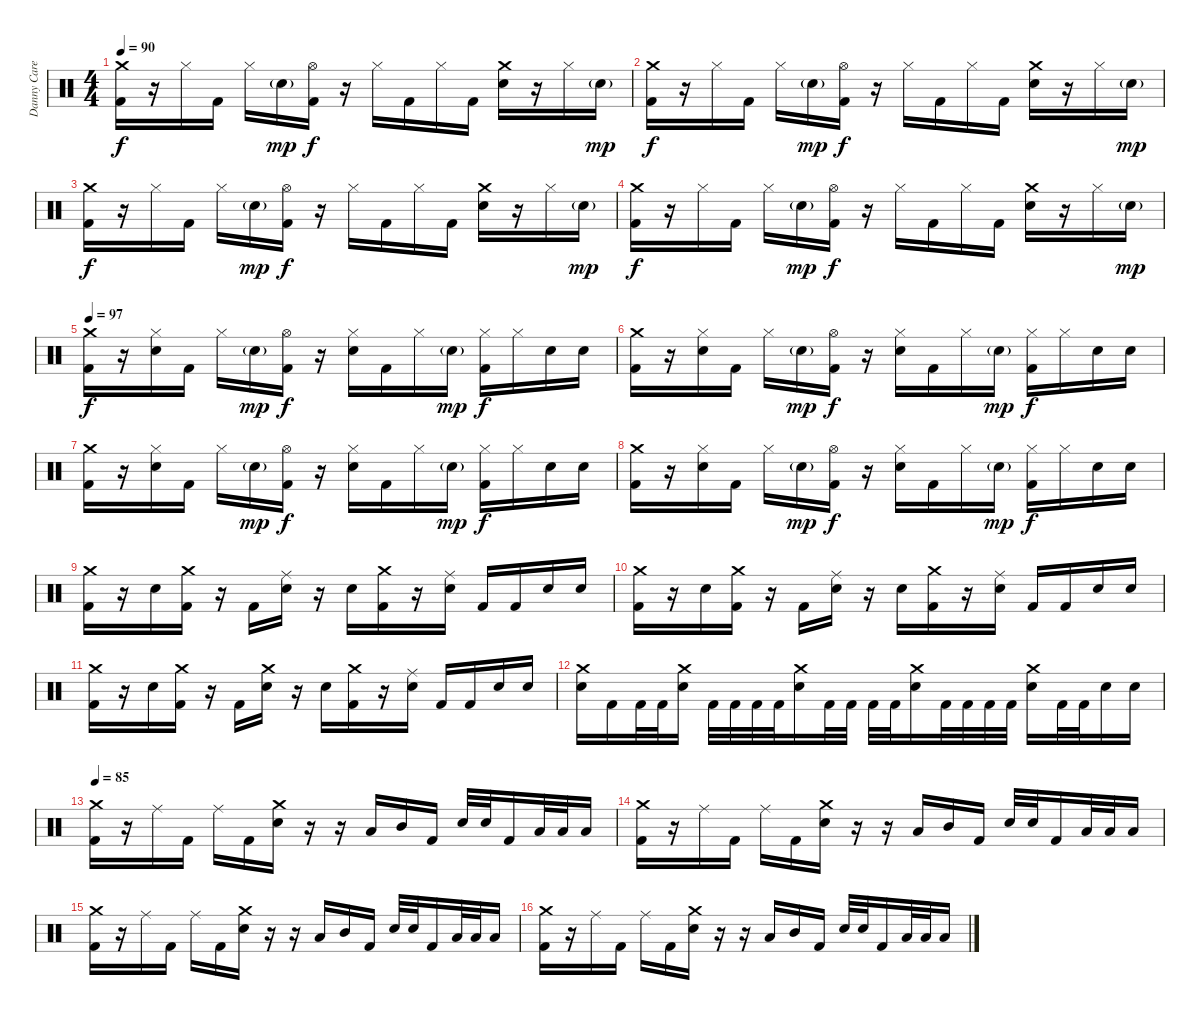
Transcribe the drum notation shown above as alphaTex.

\track ("Danny Carey" "Danny Care") {instrument percussion}
\staff {score}
\articulation defaults
\ts (4 4)
\tempo 90
\clef neutral
\ks c
("Crash medium (hit)" "Kick (hit) 2").16{dy f} r.16 "Hi-Hat (closed)".16 "Kick (hit) 2".16 "Hi-Hat (closed)".16 "Snare (hit) 2"{g}.16{dy mp} ("Hi-Hat (open)" "Kick (hit) 2").16{dy f} r.16 "Hi-Hat (closed)".16 "Kick (hit) 2".16 "Hi-Hat (closed)".16 "Kick (hit) 2".16 ("Crash medium (hit)" "Snare (hit) 2").16 r.16 "Hi-Hat (closed)".16 "Snare (hit) 2"{g}.16{dy mp} |
("Crash medium (hit)" "Kick (hit) 2").16{dy f} r.16 "Hi-Hat (closed)".16 "Kick (hit) 2".16 "Hi-Hat (closed)".16 "Snare (hit) 2"{g}.16{dy mp} ("Hi-Hat (open)" "Kick (hit) 2").16{dy f} r.16 "Hi-Hat (closed)".16 "Kick (hit) 2".16 "Hi-Hat (closed)".16 "Kick (hit) 2".16 ("Crash medium (hit)" "Snare (hit) 2").16 r.16 "Hi-Hat (closed)".16 "Snare (hit) 2"{g}.16{dy mp} |
("Crash medium (hit)" "Kick (hit) 2").16{dy f} r.16 "Hi-Hat (closed)".16 "Kick (hit) 2".16 "Hi-Hat (closed)".16 "Snare (hit) 2"{g}.16{dy mp} ("Hi-Hat (open)" "Kick (hit) 2").16{dy f} r.16 "Hi-Hat (closed)".16 "Kick (hit) 2".16 "Hi-Hat (closed)".16 "Kick (hit) 2".16 ("Crash medium (hit)" "Snare (hit) 2").16 r.16 "Hi-Hat (closed)".16 "Snare (hit) 2"{g}.16{dy mp} |
("Crash medium (hit)" "Kick (hit) 2").16{dy f} r.16 "Hi-Hat (closed)".16 "Kick (hit) 2".16 "Hi-Hat (closed)".16 "Snare (hit) 2"{g}.16{dy mp} ("Hi-Hat (open)" "Kick (hit) 2").16{dy f} r.16 "Hi-Hat (closed)".16 "Kick (hit) 2".16 "Hi-Hat (closed)".16 "Kick (hit) 2".16 ("Crash medium (hit)" "Snare (hit) 2").16 r.16 "Hi-Hat (closed)".16 "Snare (hit) 2"{g}.16{dy mp} |
\tempo 92
\tempo 97
("Crash medium (hit)" "Kick (hit) 2").16{dy f} r.16 ("Hi-Hat (closed)" "Snare (hit) 2").16 "Kick (hit) 2".16 "Hi-Hat (closed)".16 "Snare (hit) 2"{g}.16{dy mp} ("Hi-Hat (open)" "Kick (hit) 2").16{dy f} r.16 ("Hi-Hat (closed)" "Snare (hit) 2").16 "Kick (hit) 2".16 "Hi-Hat (closed)".16 "Snare (hit) 2"{g}.16{dy mp} ("Hi-Hat (closed)" "Kick (hit) 2").16{dy f} "Hi-Hat (closed)".16 "Snare (hit) 2".16 "Snare (hit) 2".16 |
("Crash medium (hit)" "Kick (hit) 2").16 r.16 ("Hi-Hat (closed)" "Snare (hit) 2").16 "Kick (hit) 2".16 "Hi-Hat (closed)".16 "Snare (hit) 2"{g}.16{dy mp} ("Hi-Hat (open)" "Kick (hit) 2").16{dy f} r.16 ("Hi-Hat (closed)" "Snare (hit) 2").16 "Kick (hit) 2".16 "Hi-Hat (closed)".16 "Snare (hit) 2"{g}.16{dy mp} ("Hi-Hat (closed)" "Kick (hit) 2").16{dy f} "Hi-Hat (closed)".16 "Snare (hit) 2".16 "Snare (hit) 2".16 |
("Crash medium (hit)" "Kick (hit) 2").16 r.16 ("Hi-Hat (closed)" "Snare (hit) 2").16 "Kick (hit) 2".16 "Hi-Hat (closed)".16 "Snare (hit) 2"{g}.16{dy mp} ("Hi-Hat (open)" "Kick (hit) 2").16{dy f} r.16 ("Hi-Hat (closed)" "Snare (hit) 2").16 "Kick (hit) 2".16 "Hi-Hat (closed)".16 "Snare (hit) 2"{g}.16{dy mp} ("Hi-Hat (closed)" "Kick (hit) 2").16{dy f} "Hi-Hat (closed)".16 "Snare (hit) 2".16 "Snare (hit) 2".16 |
("Crash medium (hit)" "Kick (hit) 2").16 r.16 ("Hi-Hat (closed)" "Snare (hit) 2").16 "Kick (hit) 2".16 "Hi-Hat (closed)".16 "Snare (hit) 2"{g}.16{dy mp} ("Hi-Hat (open)" "Kick (hit) 2").16{dy f} r.16 ("Hi-Hat (closed)" "Snare (hit) 2").16 "Kick (hit) 2".16 "Hi-Hat (closed)".16 "Snare (hit) 2"{g}.16{dy mp} ("Hi-Hat (closed)" "Kick (hit) 2").16{dy f} "Hi-Hat (closed)".16 "Snare (hit) 2".16 "Snare (hit) 2".16 |
("Crash medium (hit)" "Kick (hit) 2").16 r.16 "Snare (hit) 2".16 ("Crash medium (hit)" "Kick (hit) 2").16 r.16 "Kick (hit) 2".16 ("Ride (middle)" "Snare (hit) 2").16 r.16 "Snare (hit) 2".16 ("Crash medium (hit)" "Kick (hit) 2").16 r.16 ("Ride (middle)" "Snare (hit) 2").16 "Kick (hit) 2".16 "Kick (hit) 2".16 "Snare (hit) 2".16 "Snare (hit) 2".16 |
("Crash medium (hit)" "Kick (hit) 2").16 r.16 "Snare (hit) 2".16 ("Crash medium (hit)" "Kick (hit) 2").16 r.16 "Kick (hit) 2".16 ("Ride (middle)" "Snare (hit) 2").16 r.16 "Snare (hit) 2".16 ("Crash medium (hit)" "Kick (hit) 2").16 r.16 ("Ride (middle)" "Snare (hit) 2").16 "Kick (hit) 2".16 "Kick (hit) 2".16 "Snare (hit) 2".16 "Snare (hit) 2".16 |
("Crash medium (hit)" "Kick (hit) 2").16 r.16 "Snare (hit) 2".16 ("Crash medium (hit)" "Kick (hit) 2").16 r.16 "Kick (hit) 2".16 ("Crash medium (hit)" "Snare (hit) 2").16 r.16 "Snare (hit) 2".16 ("Crash medium (hit)" "Kick (hit) 2").16 r.16 ("Ride (middle)" "Snare (hit) 2").16 "Kick (hit) 2".16 "Kick (hit) 2".16 "Snare (hit) 2".16 "Snare (hit) 2".16 |
("Crash medium (hit)" "Snare (hit) 2").16 "Kick (hit) 2".16 "Kick (hit) 2".32 "Kick (hit) 2".32 ("Crash medium (hit)" "Snare (hit) 2").16 "Kick (hit) 2".32 "Kick (hit) 2".32 "Kick (hit) 2".32 "Kick (hit) 2".32 ("Crash medium (hit)" "Snare (hit) 2").16 "Kick (hit) 2".32 "Kick (hit) 2".32 "Kick (hit) 2".32 "Kick (hit) 2".32 ("Crash medium (hit)" "Snare (hit) 2").16 "Kick (hit) 2".32 "Kick (hit) 2".32 "Kick (hit) 2".32 "Kick (hit) 2".32 ("Crash medium (hit)" "Snare (hit) 2").16 "Kick (hit) 2".32 "Kick (hit) 2".32 "Snare (hit) 2".16 "Snare (hit) 2".16 |
\tempo 85
("Crash medium (hit)" "Kick (hit) 2").16 r.16 "Ride (middle)".16 "Kick (hit) 2".16 "Ride (middle)".16 "Kick (hit) 2".16 ("Crash medium (hit)" "Snare (hit) 2").16 r.16 r.16 "Low Tom (hit)".16 "Mid Tom (hit)".16 "Kick (hit) 2".16 "Snare (hit) 2".32 "Snare (hit) 2".32 "Kick (hit) 2".16 "Low Floor Tom (hit)".32 "Low Floor Tom (hit)".32 "Low Floor Tom (hit)".16 |
("Crash medium (hit)" "Kick (hit) 2").16 r.16 "Ride (middle)".16 "Kick (hit) 2".16 "Ride (middle)".16 "Kick (hit) 2".16 ("Crash medium (hit)" "Snare (hit) 2").16 r.16 r.16 "Low Tom (hit)".16 "Mid Tom (hit)".16 "Kick (hit) 2".16 "Snare (hit) 2".32 "Snare (hit) 2".32 "Kick (hit) 2".16 "Low Floor Tom (hit)".32 "Low Floor Tom (hit)".32 "Low Floor Tom (hit)".16 |
("Crash medium (hit)" "Kick (hit) 2").16 r.16 "Ride (middle)".16 "Kick (hit) 2".16 "Ride (middle)".16 "Kick (hit) 2".16 ("Crash medium (hit)" "Snare (hit) 2").16 r.16 r.16 "Low Tom (hit)".16 "Mid Tom (hit)".16 "Kick (hit) 2".16 "Snare (hit) 2".32 "Snare (hit) 2".32 "Kick (hit) 2".16 "Low Floor Tom (hit)".32 "Low Floor Tom (hit)".32 "Low Floor Tom (hit)".16 |
("Crash medium (hit)" "Kick (hit) 2").16 r.16 "Ride (middle)".16 "Kick (hit) 2".16 "Ride (middle)".16 "Kick (hit) 2".16 ("Crash medium (hit)" "Snare (hit) 2").16 r.16 r.16 "Low Tom (hit)".16 "Mid Tom (hit)".16 "Kick (hit) 2".16 "Snare (hit) 2".32 "Snare (hit) 2".32 "Kick (hit) 2".16 "Low Floor Tom (hit)".32 "Low Floor Tom (hit)".32 "Low Floor Tom (hit)".16
